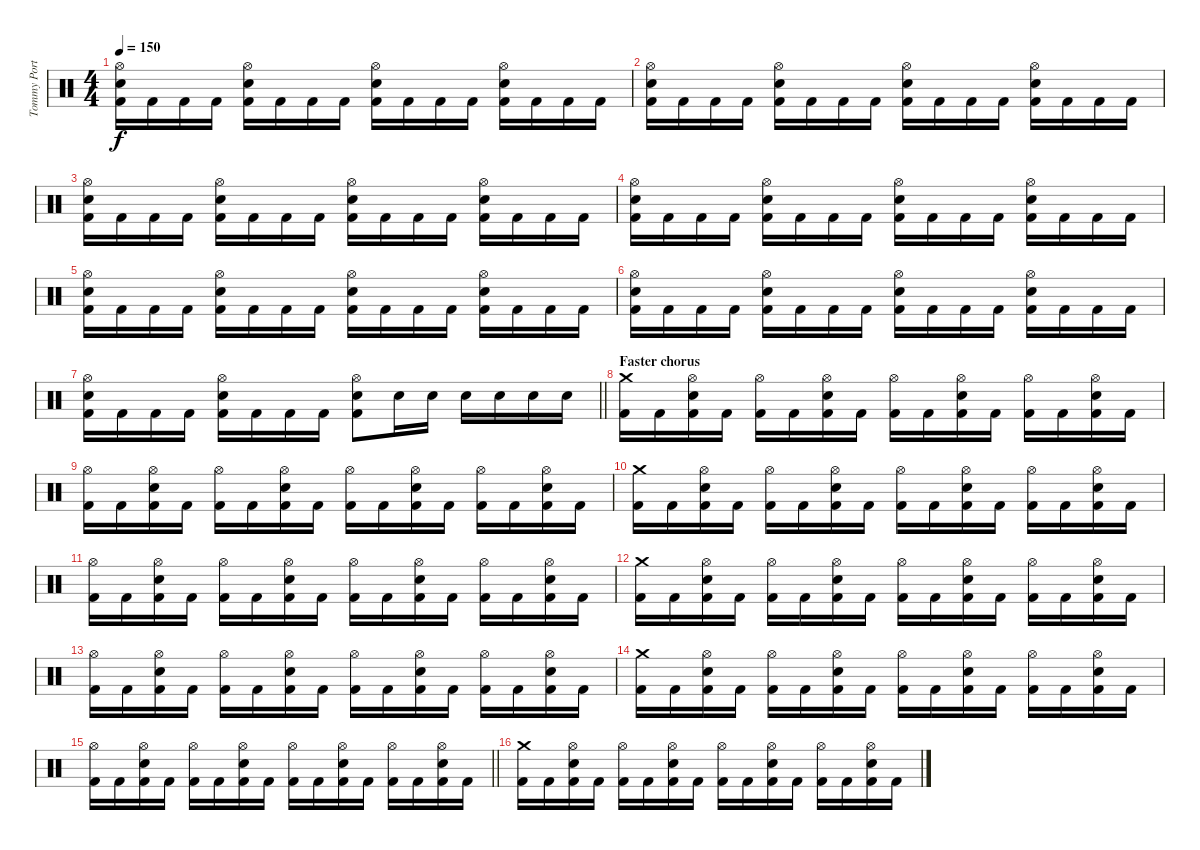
\track ("Tommy Portimo" "Tommy Port") {instrument percussion}
\staff {score}
\articulation defaults
\ts (4 4)
\tempo 150
\clef neutral
\ks c
("Hi-Hat (open)" "Electric Snare (hit)" "Kick (hit) 2").16{dy f} "Kick (hit) 2".16 "Kick (hit) 2".16 "Kick (hit) 2".16 ("Hi-Hat (open)" "Electric Snare (hit)" "Kick (hit) 2").16 "Kick (hit) 2".16 "Kick (hit) 2".16 "Kick (hit) 2".16 ("Hi-Hat (open)" "Electric Snare (hit)" "Kick (hit) 2").16 "Kick (hit) 2".16 "Kick (hit) 2".16 "Kick (hit) 2".16 ("Hi-Hat (open)" "Electric Snare (hit)" "Kick (hit) 2").16 "Kick (hit) 2".16 "Kick (hit) 2".16 "Kick (hit) 2".16 |
("Hi-Hat (open)" "Electric Snare (hit)" "Kick (hit) 2").16 "Kick (hit) 2".16 "Kick (hit) 2".16 "Kick (hit) 2".16 ("Hi-Hat (open)" "Electric Snare (hit)" "Kick (hit) 2").16 "Kick (hit) 2".16 "Kick (hit) 2".16 "Kick (hit) 2".16 ("Hi-Hat (open)" "Electric Snare (hit)" "Kick (hit) 2").16 "Kick (hit) 2".16 "Kick (hit) 2".16 "Kick (hit) 2".16 ("Hi-Hat (open)" "Electric Snare (hit)" "Kick (hit) 2").16 "Kick (hit) 2".16 "Kick (hit) 2".16 "Kick (hit) 2".16 |
("Hi-Hat (open)" "Electric Snare (hit)" "Kick (hit) 2").16 "Kick (hit) 2".16 "Kick (hit) 2".16 "Kick (hit) 2".16 ("Hi-Hat (open)" "Electric Snare (hit)" "Kick (hit) 2").16 "Kick (hit) 2".16 "Kick (hit) 2".16 "Kick (hit) 2".16 ("Hi-Hat (open)" "Electric Snare (hit)" "Kick (hit) 2").16 "Kick (hit) 2".16 "Kick (hit) 2".16 "Kick (hit) 2".16 ("Hi-Hat (open)" "Electric Snare (hit)" "Kick (hit) 2").16 "Kick (hit) 2".16 "Kick (hit) 2".16 "Kick (hit) 2".16 |
("Hi-Hat (open)" "Electric Snare (hit)" "Kick (hit) 2").16 "Kick (hit) 2".16 "Kick (hit) 2".16 "Kick (hit) 2".16 ("Hi-Hat (open)" "Electric Snare (hit)" "Kick (hit) 2").16 "Kick (hit) 2".16 "Kick (hit) 2".16 "Kick (hit) 2".16 ("Hi-Hat (open)" "Electric Snare (hit)" "Kick (hit) 2").16 "Kick (hit) 2".16 "Kick (hit) 2".16 "Kick (hit) 2".16 ("Hi-Hat (open)" "Electric Snare (hit)" "Kick (hit) 2").16 "Kick (hit) 2".16 "Kick (hit) 2".16 "Kick (hit) 2".16 |
("Hi-Hat (open)" "Electric Snare (hit)" "Kick (hit) 2").16 "Kick (hit) 2".16 "Kick (hit) 2".16 "Kick (hit) 2".16 ("Hi-Hat (open)" "Electric Snare (hit)" "Kick (hit) 2").16 "Kick (hit) 2".16 "Kick (hit) 2".16 "Kick (hit) 2".16 ("Hi-Hat (open)" "Electric Snare (hit)" "Kick (hit) 2").16 "Kick (hit) 2".16 "Kick (hit) 2".16 "Kick (hit) 2".16 ("Hi-Hat (open)" "Electric Snare (hit)" "Kick (hit) 2").16 "Kick (hit) 2".16 "Kick (hit) 2".16 "Kick (hit) 2".16 |
("Hi-Hat (open)" "Electric Snare (hit)" "Kick (hit) 2").16 "Kick (hit) 2".16 "Kick (hit) 2".16 "Kick (hit) 2".16 ("Hi-Hat (open)" "Electric Snare (hit)" "Kick (hit) 2").16 "Kick (hit) 2".16 "Kick (hit) 2".16 "Kick (hit) 2".16 ("Hi-Hat (open)" "Electric Snare (hit)" "Kick (hit) 2").16 "Kick (hit) 2".16 "Kick (hit) 2".16 "Kick (hit) 2".16 ("Hi-Hat (open)" "Electric Snare (hit)" "Kick (hit) 2").16 "Kick (hit) 2".16 "Kick (hit) 2".16 "Kick (hit) 2".16 |
\barLineRight lightlight
("Hi-Hat (open)" "Electric Snare (hit)" "Kick (hit) 2").16 "Kick (hit) 2".16 "Kick (hit) 2".16 "Kick (hit) 2".16 ("Hi-Hat (open)" "Electric Snare (hit)" "Kick (hit) 2").16 "Kick (hit) 2".16 "Kick (hit) 2".16 "Kick (hit) 2".16 ("Hi-Hat (open)" "Electric Snare (hit)" "Kick (hit) 2").8 "Electric Snare (hit)".16 "Electric Snare (hit)".16 "Electric Snare (hit)".16 "Electric Snare (hit)".16 "Electric Snare (hit)".16 "Electric Snare (hit)".16 |
\section ("" "Faster chorus")
("Crash medium (hit)" "Kick (hit) 2").16 "Kick (hit) 2".16 ("Hi-Hat (open)" "Electric Snare (hit)" "Kick (hit) 2").16 "Kick (hit) 2".16 ("Hi-Hat (open)" "Kick (hit) 2").16 "Kick (hit) 2".16 ("Hi-Hat (open)" "Electric Snare (hit)" "Kick (hit) 2").16 "Kick (hit) 2".16 ("Hi-Hat (open)" "Kick (hit) 2").16 "Kick (hit) 2".16 ("Hi-Hat (open)" "Electric Snare (hit)" "Kick (hit) 2").16 "Kick (hit) 2".16 ("Hi-Hat (open)" "Kick (hit) 2").16 "Kick (hit) 2".16 ("Hi-Hat (open)" "Electric Snare (hit)" "Kick (hit) 2").16 "Kick (hit) 2".16 |
("Hi-Hat (open)" "Kick (hit) 2").16 "Kick (hit) 2".16 ("Hi-Hat (open)" "Electric Snare (hit)" "Kick (hit) 2").16 "Kick (hit) 2".16 ("Hi-Hat (open)" "Kick (hit) 2").16 "Kick (hit) 2".16 ("Hi-Hat (open)" "Electric Snare (hit)" "Kick (hit) 2").16 "Kick (hit) 2".16 ("Hi-Hat (open)" "Kick (hit) 2").16 "Kick (hit) 2".16 ("Hi-Hat (open)" "Electric Snare (hit)" "Kick (hit) 2").16 "Kick (hit) 2".16 ("Hi-Hat (open)" "Kick (hit) 2").16 "Kick (hit) 2".16 ("Hi-Hat (open)" "Electric Snare (hit)" "Kick (hit) 2").16 "Kick (hit) 2".16 |
("Crash medium (hit)" "Kick (hit) 2").16 "Kick (hit) 2".16 ("Hi-Hat (open)" "Electric Snare (hit)" "Kick (hit) 2").16 "Kick (hit) 2".16 ("Hi-Hat (open)" "Kick (hit) 2").16 "Kick (hit) 2".16 ("Hi-Hat (open)" "Electric Snare (hit)" "Kick (hit) 2").16 "Kick (hit) 2".16 ("Hi-Hat (open)" "Kick (hit) 2").16 "Kick (hit) 2".16 ("Hi-Hat (open)" "Electric Snare (hit)" "Kick (hit) 2").16 "Kick (hit) 2".16 ("Hi-Hat (open)" "Kick (hit) 2").16 "Kick (hit) 2".16 ("Hi-Hat (open)" "Electric Snare (hit)" "Kick (hit) 2").16 "Kick (hit) 2".16 |
("Hi-Hat (open)" "Kick (hit) 2").16 "Kick (hit) 2".16 ("Hi-Hat (open)" "Electric Snare (hit)" "Kick (hit) 2").16 "Kick (hit) 2".16 ("Hi-Hat (open)" "Kick (hit) 2").16 "Kick (hit) 2".16 ("Hi-Hat (open)" "Electric Snare (hit)" "Kick (hit) 2").16 "Kick (hit) 2".16 ("Hi-Hat (open)" "Kick (hit) 2").16 "Kick (hit) 2".16 ("Hi-Hat (open)" "Electric Snare (hit)" "Kick (hit) 2").16 "Kick (hit) 2".16 ("Hi-Hat (open)" "Kick (hit) 2").16 "Kick (hit) 2".16 ("Hi-Hat (open)" "Electric Snare (hit)" "Kick (hit) 2").16 "Kick (hit) 2".16 |
("Crash medium (hit)" "Kick (hit) 2").16 "Kick (hit) 2".16 ("Hi-Hat (open)" "Electric Snare (hit)" "Kick (hit) 2").16 "Kick (hit) 2".16 ("Hi-Hat (open)" "Kick (hit) 2").16 "Kick (hit) 2".16 ("Hi-Hat (open)" "Electric Snare (hit)" "Kick (hit) 2").16 "Kick (hit) 2".16 ("Hi-Hat (open)" "Kick (hit) 2").16 "Kick (hit) 2".16 ("Hi-Hat (open)" "Electric Snare (hit)" "Kick (hit) 2").16 "Kick (hit) 2".16 ("Hi-Hat (open)" "Kick (hit) 2").16 "Kick (hit) 2".16 ("Hi-Hat (open)" "Electric Snare (hit)" "Kick (hit) 2").16 "Kick (hit) 2".16 |
("Hi-Hat (open)" "Kick (hit) 2").16 "Kick (hit) 2".16 ("Hi-Hat (open)" "Electric Snare (hit)" "Kick (hit) 2").16 "Kick (hit) 2".16 ("Hi-Hat (open)" "Kick (hit) 2").16 "Kick (hit) 2".16 ("Hi-Hat (open)" "Electric Snare (hit)" "Kick (hit) 2").16 "Kick (hit) 2".16 ("Hi-Hat (open)" "Kick (hit) 2").16 "Kick (hit) 2".16 ("Hi-Hat (open)" "Electric Snare (hit)" "Kick (hit) 2").16 "Kick (hit) 2".16 ("Hi-Hat (open)" "Kick (hit) 2").16 "Kick (hit) 2".16 ("Hi-Hat (open)" "Electric Snare (hit)" "Kick (hit) 2").16 "Kick (hit) 2".16 |
("Crash medium (hit)" "Kick (hit) 2").16 "Kick (hit) 2".16 ("Hi-Hat (open)" "Electric Snare (hit)" "Kick (hit) 2").16 "Kick (hit) 2".16 ("Hi-Hat (open)" "Kick (hit) 2").16 "Kick (hit) 2".16 ("Hi-Hat (open)" "Electric Snare (hit)" "Kick (hit) 2").16 "Kick (hit) 2".16 ("Hi-Hat (open)" "Kick (hit) 2").16 "Kick (hit) 2".16 ("Hi-Hat (open)" "Electric Snare (hit)" "Kick (hit) 2").16 "Kick (hit) 2".16 ("Hi-Hat (open)" "Kick (hit) 2").16 "Kick (hit) 2".16 ("Hi-Hat (open)" "Electric Snare (hit)" "Kick (hit) 2").16 "Kick (hit) 2".16 |
\barLineRight lightlight
("Hi-Hat (open)" "Kick (hit) 2").16 "Kick (hit) 2".16 ("Hi-Hat (open)" "Electric Snare (hit)" "Kick (hit) 2").16 "Kick (hit) 2".16 ("Hi-Hat (open)" "Kick (hit) 2").16 "Kick (hit) 2".16 ("Hi-Hat (open)" "Electric Snare (hit)" "Kick (hit) 2").16 "Kick (hit) 2".16 ("Hi-Hat (open)" "Kick (hit) 2").16 "Kick (hit) 2".16 ("Hi-Hat (open)" "Electric Snare (hit)" "Kick (hit) 2").16 "Kick (hit) 2".16 ("Hi-Hat (open)" "Kick (hit) 2").16 "Kick (hit) 2".16 ("Hi-Hat (open)" "Electric Snare (hit)" "Kick (hit) 2").16 "Kick (hit) 2".16 |
("Crash medium (hit)" "Kick (hit) 2").16 "Kick (hit) 2".16 ("Hi-Hat (open)" "Electric Snare (hit)" "Kick (hit) 2").16 "Kick (hit) 2".16 ("Hi-Hat (open)" "Kick (hit) 2").16 "Kick (hit) 2".16 ("Hi-Hat (open)" "Electric Snare (hit)" "Kick (hit) 2").16 "Kick (hit) 2".16 ("Hi-Hat (open)" "Kick (hit) 2").16 "Kick (hit) 2".16 ("Hi-Hat (open)" "Electric Snare (hit)" "Kick (hit) 2").16 "Kick (hit) 2".16 ("Hi-Hat (open)" "Kick (hit) 2").16 "Kick (hit) 2".16 ("Hi-Hat (open)" "Electric Snare (hit)" "Kick (hit) 2").16 "Kick (hit) 2".16
